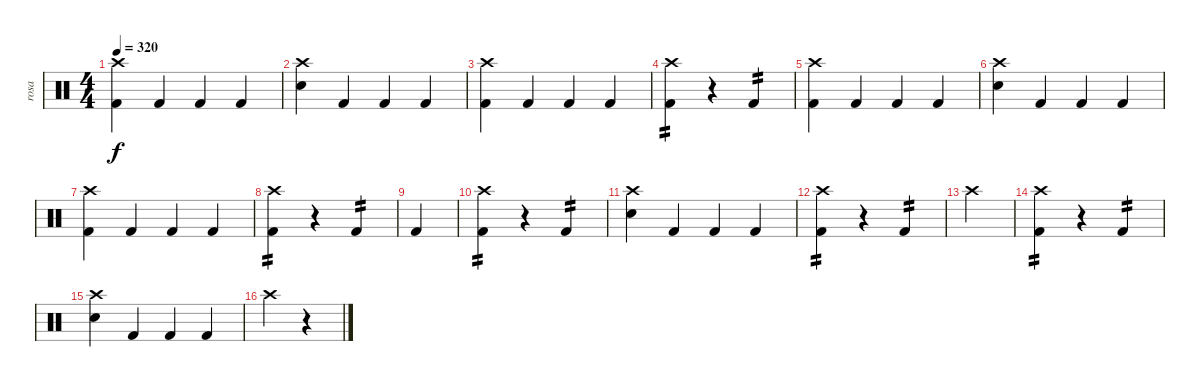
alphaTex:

\track ("rosa" "rosa") {instrument percussion}
\staff {score}
\articulation defaults
\ts (4 4)
\tempo 320
\clef neutral
\ks c
("Crash high (hit)" "Kick (hit) 2").4{dy f} "Kick (hit) 2".4 "Kick (hit) 2".4 "Kick (hit) 2".4 |
("Crash high (hit)" "Electric Snare (hit)").4 "Kick (hit) 2".4 "Kick (hit) 2".4 "Kick (hit) 2".4 |
("Crash high (hit)" "Kick (hit) 2").4 "Kick (hit) 2".4 "Kick (hit) 2".4 "Kick (hit) 2".4 |
("Crash high (hit)" "Kick (hit) 2").4{tp 2} r.4 "Kick (hit) 2".4{tp 2} |
("Crash high (hit)" "Kick (hit) 2").4 "Kick (hit) 2".4 "Kick (hit) 2".4 "Kick (hit) 2".4 |
("Crash high (hit)" "Electric Snare (hit)").4 "Kick (hit) 2".4 "Kick (hit) 2".4 "Kick (hit) 2".4 |
("Crash high (hit)" "Kick (hit) 2").4 "Kick (hit) 2".4 "Kick (hit) 2".4 "Kick (hit) 2".4 |
("Crash high (hit)" "Kick (hit) 2").4{tp 2} r.4 "Kick (hit) 2".4{tp 2} |
"Kick (hit) 2".4 |
("Crash high (hit)" "Kick (hit) 2").4{tp 2} r.4 "Kick (hit) 2".4{tp 2} |
("Crash high (hit)" "Electric Snare (hit)").4 "Kick (hit) 2".4 "Kick (hit) 2".4 "Kick (hit) 2".4 |
("Crash high (hit)" "Kick (hit) 2").4{tp 2} r.4 "Kick (hit) 2".4{tp 2} |
"Crash high (hit)".4 |
("Crash high (hit)" "Kick (hit) 2").4{tp 2} r.4 "Kick (hit) 2".4{tp 2} |
("Crash high (hit)" "Electric Snare (hit)").4 "Kick (hit) 2".4 "Kick (hit) 2".4 "Kick (hit) 2".4 |
"Crash high (hit)".4 r.4
